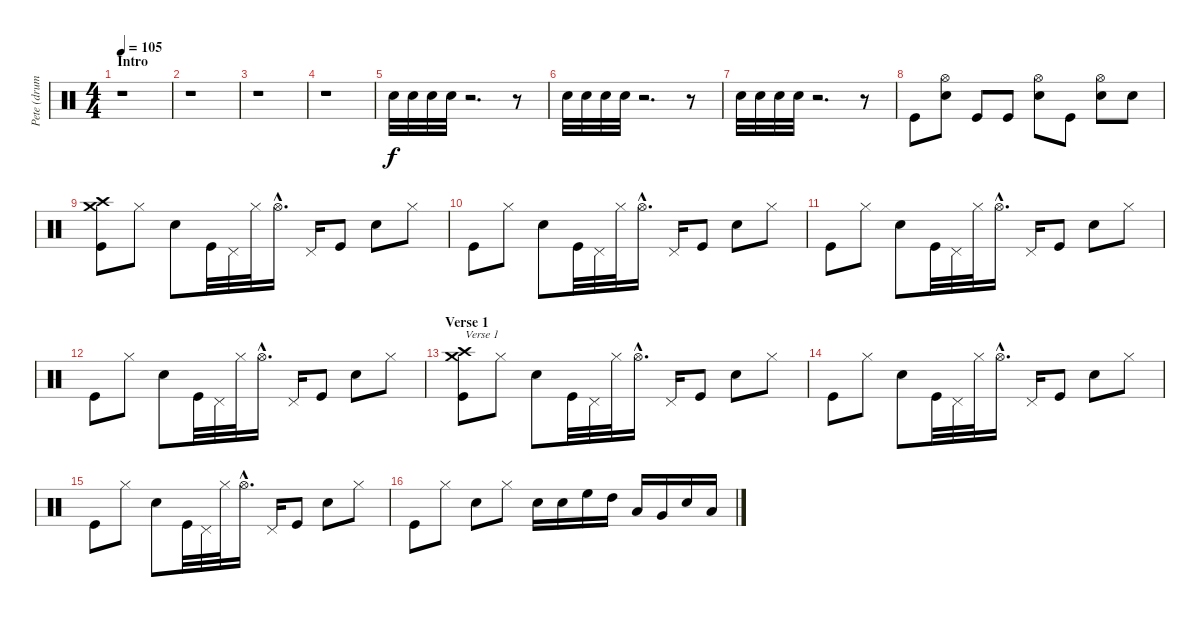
\track ("Pete (drums)" "Pete (drum") {instrument percussion}
\staff {score}
\articulation defaults
\ts (4 4)
\section ("" "Intro")
\tempo 105
\clef neutral
\ks c
r.1{dy f} |
r.1 |
r.1 |
r.1 |
"Snare (hit) 2".32 "Snare (hit) 2".32 "Snare (hit) 2".32 "Snare (hit) 2".32 r.2{d} r.8 |
"Snare (hit) 2".32 "Snare (hit) 2".32 "Snare (hit) 2".32 "Snare (hit) 2".32 r.2{d} r.8 |
"Snare (hit) 2".32 "Snare (hit) 2".32 "Snare (hit) 2".32 "Snare (hit) 2".32 r.2{d} r.8 |
"Kick (hit)".8 ("Hi-Hat (open)" "Snare (hit) 2").8 "Kick (hit)".8 "Kick (hit)".8 ("Hi-Hat (open)" "Snare (hit) 2").8 "Kick (hit)".8 ("Hi-Hat (open)" "Snare (hit) 2").8 "Snare (hit) 2".8 |
("Crash high (hit)" "Crash medium (hit)" "Kick (hit)").8 "Hi-Hat (closed)".8 "Snare (hit) 2".8 "Kick (hit)".32 "Pedal Hi-Hat (hit)".32 "Hi-Hat (closed)".32 "Hi-Hat (open)"{hac}.16{d} "Pedal Hi-Hat (hit)".16 "Kick (hit)".8 "Snare (hit) 2".8 "Hi-Hat (closed)".8 |
"Kick (hit)".8 "Hi-Hat (closed)".8 "Snare (hit) 2".8 "Kick (hit)".32 "Pedal Hi-Hat (hit)".32 "Hi-Hat (closed)".32 "Hi-Hat (open)"{hac}.16{d} "Pedal Hi-Hat (hit)".16 "Kick (hit)".8 "Snare (hit) 2".8 "Hi-Hat (closed)".8 |
"Kick (hit)".8 "Hi-Hat (closed)".8 "Snare (hit) 2".8 "Kick (hit)".32 "Pedal Hi-Hat (hit)".32 "Hi-Hat (closed)".32 "Hi-Hat (open)"{hac}.16{d} "Pedal Hi-Hat (hit)".16 "Kick (hit)".8 "Snare (hit) 2".8 "Hi-Hat (closed)".8 |
"Kick (hit)".8 "Hi-Hat (closed)".8 "Snare (hit) 2".8 "Kick (hit)".32 "Pedal Hi-Hat (hit)".32 "Hi-Hat (closed)".32 "Hi-Hat (open)"{hac}.16{d} "Pedal Hi-Hat (hit)".16 "Kick (hit)".8 "Snare (hit) 2".8 "Hi-Hat (closed)".8 |
\section ("" "Verse 1")
("Crash medium (hit)" "Crash high (hit)" "Kick (hit)").8{txt "Verse 1"} "Hi-Hat (closed)".8 "Snare (hit) 2".8 "Kick (hit)".32 "Pedal Hi-Hat (hit)".32 "Hi-Hat (closed)".32 "Hi-Hat (open)"{hac}.16{d} "Pedal Hi-Hat (hit)".16 "Kick (hit)".8 "Snare (hit) 2".8 "Hi-Hat (closed)".8 |
"Kick (hit)".8 "Hi-Hat (closed)".8 "Snare (hit) 2".8 "Kick (hit)".32 "Pedal Hi-Hat (hit)".32 "Hi-Hat (closed)".32 "Hi-Hat (open)"{hac}.16{d} "Pedal Hi-Hat (hit)".16 "Kick (hit)".8 "Snare (hit) 2".8 "Hi-Hat (closed)".8 |
"Kick (hit)".8 "Hi-Hat (closed)".8 "Snare (hit) 2".8 "Kick (hit)".32 "Pedal Hi-Hat (hit)".32 "Hi-Hat (closed)".32 "Hi-Hat (open)"{hac}.16{d} "Pedal Hi-Hat (hit)".16 "Kick (hit)".8 "Snare (hit) 2".8 "Hi-Hat (closed)".8 |
"Kick (hit)".8 "Hi-Hat (closed)".8 "Snare (hit) 2".8 "Hi-Hat (closed)".8 "Snare (hit) 2".16 "Snare (hit) 2".16 "High Floor Tom (hit)".16 "High Tom (hit)".16 "Low Tom (hit)".16 "Very Low Tom (hit)".16 "Snare (hit) 2".16 "Low Floor Tom (hit)".16
